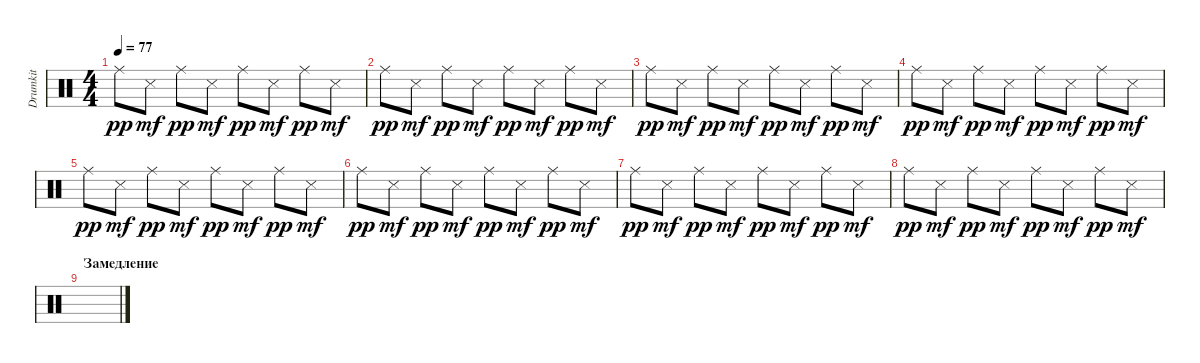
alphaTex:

\track ("Drumkit" "Drumkit") {instrument percussion}
\staff {score}
\articulation defaults
\ts (4 4)
\tempo 77
\clef neutral
\ks c "Ride (middle)".8{dy pp} "Snare (side stick) 3".8{dy mf} "Ride (middle)".8{dy pp} "Snare (side stick) 3".8{dy mf} "Ride (middle)".8{dy pp} "Snare (side stick) 3".8{dy mf} "Ride (middle)".8{dy pp} "Snare (side stick) 3".8{dy mf}
|
"Ride (middle)".8{dy pp} "Snare (side stick) 3".8{dy mf} "Ride (middle)".8{dy pp} "Snare (side stick) 3".8{dy mf} "Ride (middle)".8{dy pp} "Snare (side stick) 3".8{dy mf} "Ride (middle)".8{dy pp} "Snare (side stick) 3".8{dy mf} |
"Ride (middle)".8{dy pp} "Snare (side stick) 3".8{dy mf} "Ride (middle)".8{dy pp} "Snare (side stick) 3".8{dy mf} "Ride (middle)".8{dy pp} "Snare (side stick) 3".8{dy mf} "Ride (middle)".8{dy pp} "Snare (side stick) 3".8{dy mf} |
"Ride (middle)".8{dy pp} "Snare (side stick) 3".8{dy mf} "Ride (middle)".8{dy pp} "Snare (side stick) 3".8{dy mf} "Ride (middle)".8{dy pp} "Snare (side stick) 3".8{dy mf} "Ride (middle)".8{dy pp} "Snare (side stick) 3".8{dy mf} |
"Ride (middle)".8{dy pp} "Snare (side stick) 3".8{dy mf} "Ride (middle)".8{dy pp} "Snare (side stick) 3".8{dy mf} "Ride (middle)".8{dy pp} "Snare (side stick) 3".8{dy mf} "Ride (middle)".8{dy pp} "Snare (side stick) 3".8{dy mf} |
"Ride (middle)".8{dy pp} "Snare (side stick) 3".8{dy mf} "Ride (middle)".8{dy pp} "Snare (side stick) 3".8{dy mf} "Ride (middle)".8{dy pp} "Snare (side stick) 3".8{dy mf} "Ride (middle)".8{dy pp} "Snare (side stick) 3".8{dy mf} |
"Ride (middle)".8{dy pp} "Snare (side stick) 3".8{dy mf} "Ride (middle)".8{dy pp} "Snare (side stick) 3".8{dy mf} "Ride (middle)".8{dy pp} "Snare (side stick) 3".8{dy mf} "Ride (middle)".8{dy pp} "Snare (side stick) 3".8{dy mf} |
"Ride (middle)".8{dy pp} "Snare (side stick) 3".8{dy mf} "Ride (middle)".8{dy pp} "Snare (side stick) 3".8{dy mf} "Ride (middle)".8{dy pp} "Snare (side stick) 3".8{dy mf} "Ride (middle)".8{dy pp} "Snare (side stick) 3".8{dy mf} |
\section ("" "Замедление")
